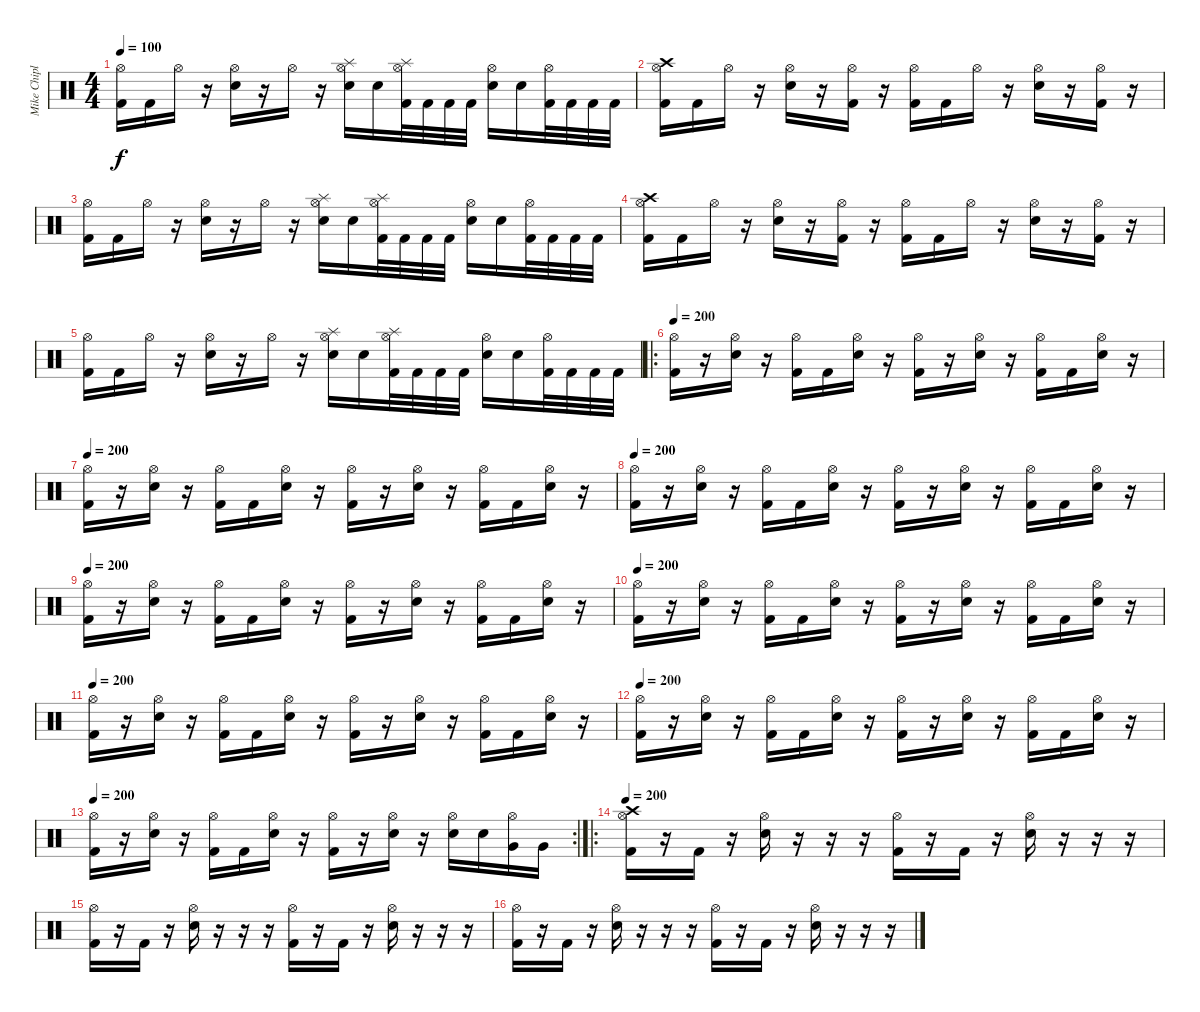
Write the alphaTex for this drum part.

\track ("Mike Chiplin" "Mike Chipl") {instrument percussion}
\staff {score}
\articulation defaults
\ts (4 4)
\tempo 100
\clef neutral
\ks c
("Hi-Hat (open)" "Kick (hit) 2").16{dy f} "Kick (hit) 2".16 "Hi-Hat (open)".16 r.16 ("Hi-Hat (open)" "Electric Snare (hit)").16 r.16 "Hi-Hat (open)".16 r.16 ("Hi-Hat (open)" "Electric Snare (hit)" "Splash (hit)").16 "Electric Snare (hit)".16 ("Hi-Hat (open)" "Kick (hit) 2" "Splash (hit)").32 "Kick (hit) 2".32 "Kick (hit) 2".32 "Kick (hit) 2".32 ("Hi-Hat (open)" "Electric Snare (hit)").16 "Electric Snare (hit)".16 ("Kick (hit) 2" "Hi-Hat (open)").32 "Kick (hit) 2".32 "Kick (hit) 2".32 "Kick (hit) 2".32 |
("Hi-Hat (open)" "Kick (hit) 2" "Crash high (hit)").16 "Kick (hit) 2".16 "Hi-Hat (open)".16 r.16 ("Hi-Hat (open)" "Electric Snare (hit)").16 r.16 ("Hi-Hat (open)" "Kick (hit) 2").16 r.16 ("Hi-Hat (open)" "Kick (hit) 2").16 "Kick (hit) 2".16 "Hi-Hat (open)".16 r.16 ("Hi-Hat (open)" "Electric Snare (hit)").16 r.16 ("Hi-Hat (open)" "Kick (hit) 2").16 r.16 |
("Hi-Hat (open)" "Kick (hit) 2").16 "Kick (hit) 2".16 "Hi-Hat (open)".16 r.16 ("Hi-Hat (open)" "Electric Snare (hit)").16 r.16 "Hi-Hat (open)".16 r.16 ("Hi-Hat (open)" "Electric Snare (hit)" "Splash (hit)").16 "Electric Snare (hit)".16 ("Hi-Hat (open)" "Kick (hit) 2" "Splash (hit)").32 "Kick (hit) 2".32 "Kick (hit) 2".32 "Kick (hit) 2".32 ("Hi-Hat (open)" "Electric Snare (hit)").16 "Electric Snare (hit)".16 ("Kick (hit) 2" "Hi-Hat (open)").32 "Kick (hit) 2".32 "Kick (hit) 2".32 "Kick (hit) 2".32 |
("Hi-Hat (open)" "Kick (hit) 2" "Crash high (hit)").16 "Kick (hit) 2".16 "Hi-Hat (open)".16 r.16 ("Hi-Hat (open)" "Electric Snare (hit)").16 r.16 ("Hi-Hat (open)" "Kick (hit) 2").16 r.16 ("Hi-Hat (open)" "Kick (hit) 2").16 "Kick (hit) 2".16 "Hi-Hat (open)".16 r.16 ("Hi-Hat (open)" "Electric Snare (hit)").16 r.16 ("Hi-Hat (open)" "Kick (hit) 2").16 r.16 |
("Hi-Hat (open)" "Kick (hit) 2").16 "Kick (hit) 2".16 "Hi-Hat (open)".16 r.16 ("Hi-Hat (open)" "Electric Snare (hit)").16 r.16 "Hi-Hat (open)".16 r.16 ("Hi-Hat (open)" "Electric Snare (hit)" "Splash (hit)").16 "Electric Snare (hit)".16 ("Hi-Hat (open)" "Kick (hit) 2" "Splash (hit)").32 "Kick (hit) 2".32 "Kick (hit) 2".32 "Kick (hit) 2".32 ("Hi-Hat (open)" "Electric Snare (hit)").16 "Electric Snare (hit)".16 ("Kick (hit) 2" "Hi-Hat (open)").32 "Kick (hit) 2".32 "Kick (hit) 2".32 "Kick (hit) 2".32 |
\ro
\tempo 200
("Hi-Hat (open)" "Kick (hit) 2").16 r.16 ("Hi-Hat (open)" "Electric Snare (hit)").16 r.16 ("Hi-Hat (open)" "Kick (hit) 2").16 "Kick (hit) 2".16 ("Hi-Hat (open)" "Electric Snare (hit)").16 r.16 ("Hi-Hat (open)" "Kick (hit) 2").16 r.16 ("Hi-Hat (open)" "Electric Snare (hit)").16 r.16 ("Hi-Hat (open)" "Kick (hit) 2").16 "Kick (hit) 2".16 ("Hi-Hat (open)" "Electric Snare (hit)").16 r.16 |
\tempo 200
("Hi-Hat (open)" "Kick (hit) 2").16 r.16 ("Hi-Hat (open)" "Electric Snare (hit)").16 r.16 ("Hi-Hat (open)" "Kick (hit) 2").16 "Kick (hit) 2".16 ("Hi-Hat (open)" "Electric Snare (hit)").16 r.16 ("Hi-Hat (open)" "Kick (hit) 2").16 r.16 ("Hi-Hat (open)" "Electric Snare (hit)").16 r.16 ("Hi-Hat (open)" "Kick (hit) 2").16 "Kick (hit) 2".16 ("Hi-Hat (open)" "Electric Snare (hit)").16 r.16 |
\tempo 200
("Hi-Hat (open)" "Kick (hit) 2").16 r.16 ("Hi-Hat (open)" "Electric Snare (hit)").16 r.16 ("Hi-Hat (open)" "Kick (hit) 2").16 "Kick (hit) 2".16 ("Hi-Hat (open)" "Electric Snare (hit)").16 r.16 ("Hi-Hat (open)" "Kick (hit) 2").16 r.16 ("Hi-Hat (open)" "Electric Snare (hit)").16 r.16 ("Hi-Hat (open)" "Kick (hit) 2").16 "Kick (hit) 2".16 ("Hi-Hat (open)" "Electric Snare (hit)").16 r.16 |
\tempo 200
("Hi-Hat (open)" "Kick (hit) 2").16 r.16 ("Hi-Hat (open)" "Electric Snare (hit)").16 r.16 ("Hi-Hat (open)" "Kick (hit) 2").16 "Kick (hit) 2".16 ("Hi-Hat (open)" "Electric Snare (hit)").16 r.16 ("Hi-Hat (open)" "Kick (hit) 2").16 r.16 ("Hi-Hat (open)" "Electric Snare (hit)").16 r.16 ("Hi-Hat (open)" "Kick (hit) 2").16 "Kick (hit) 2".16 ("Hi-Hat (open)" "Electric Snare (hit)").16 r.16 |
\tempo 200
("Hi-Hat (open)" "Kick (hit) 2").16 r.16 ("Hi-Hat (open)" "Electric Snare (hit)").16 r.16 ("Hi-Hat (open)" "Kick (hit) 2").16 "Kick (hit) 2".16 ("Hi-Hat (open)" "Electric Snare (hit)").16 r.16 ("Hi-Hat (open)" "Kick (hit) 2").16 r.16 ("Hi-Hat (open)" "Electric Snare (hit)").16 r.16 ("Hi-Hat (open)" "Kick (hit) 2").16 "Kick (hit) 2".16 ("Hi-Hat (open)" "Electric Snare (hit)").16 r.16 |
\tempo 200
("Hi-Hat (open)" "Kick (hit) 2").16 r.16 ("Hi-Hat (open)" "Electric Snare (hit)").16 r.16 ("Hi-Hat (open)" "Kick (hit) 2").16 "Kick (hit) 2".16 ("Hi-Hat (open)" "Electric Snare (hit)").16 r.16 ("Hi-Hat (open)" "Kick (hit) 2").16 r.16 ("Hi-Hat (open)" "Electric Snare (hit)").16 r.16 ("Hi-Hat (open)" "Kick (hit) 2").16 "Kick (hit) 2".16 ("Hi-Hat (open)" "Electric Snare (hit)").16 r.16 |
\tempo 200
("Hi-Hat (open)" "Kick (hit) 2").16 r.16 ("Hi-Hat (open)" "Electric Snare (hit)").16 r.16 ("Hi-Hat (open)" "Kick (hit) 2").16 "Kick (hit) 2".16 ("Hi-Hat (open)" "Electric Snare (hit)").16 r.16 ("Hi-Hat (open)" "Kick (hit) 2").16 r.16 ("Hi-Hat (open)" "Electric Snare (hit)").16 r.16 ("Hi-Hat (open)" "Kick (hit) 2").16 "Kick (hit) 2".16 ("Hi-Hat (open)" "Electric Snare (hit)").16 r.16 |
\rc 2
\tempo 200
("Hi-Hat (open)" "Kick (hit) 2").16 r.16 ("Hi-Hat (open)" "Electric Snare (hit)").16 r.16 ("Hi-Hat (open)" "Kick (hit) 2").16 "Kick (hit) 2".16 ("Hi-Hat (open)" "Electric Snare (hit)").16 r.16 ("Hi-Hat (open)" "Kick (hit) 2").16 r.16 ("Hi-Hat (open)" "Electric Snare (hit)").16 r.16 ("Hi-Hat (open)" "Electric Snare (hit)").16 "Electric Snare (hit)".16 ("Hi-Hat (open)" "Very Low Tom (hit)").16 "Very Low Tom (hit)".16 |
\ro
\tempo 200
("Hi-Hat (open)" "Kick (hit) 2" "Crash high (hit)").16 r.16 "Kick (hit) 2".16 r.16 ("Hi-Hat (open)" "Electric Snare (hit)").16 r.16 r.16 r.16 ("Hi-Hat (open)" "Kick (hit) 2").16 r.16 "Kick (hit) 2".16 r.16 ("Hi-Hat (open)" "Electric Snare (hit)").16 r.16 r.16 r.16 |
("Hi-Hat (open)" "Kick (hit) 2").16 r.16 "Kick (hit) 2".16 r.16 ("Hi-Hat (open)" "Electric Snare (hit)").16 r.16 r.16 r.16 ("Hi-Hat (open)" "Kick (hit) 2").16 r.16 "Kick (hit) 2".16 r.16 ("Hi-Hat (open)" "Electric Snare (hit)").16 r.16 r.16 r.16 |
("Hi-Hat (open)" "Kick (hit) 2").16 r.16 "Kick (hit) 2".16 r.16 ("Hi-Hat (open)" "Electric Snare (hit)").16 r.16 r.16 r.16 ("Hi-Hat (open)" "Kick (hit) 2").16 r.16 "Kick (hit) 2".16 r.16 ("Hi-Hat (open)" "Electric Snare (hit)").16 r.16 r.16 r.16
